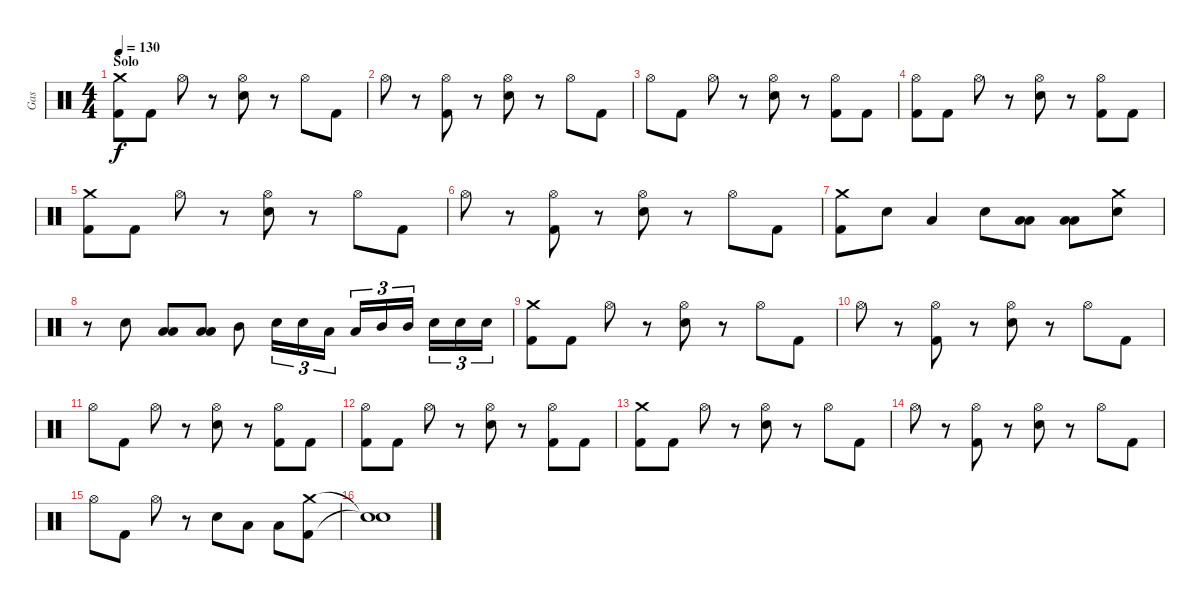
\track ("Gas" "Gas") {instrument percussion}
\staff {score}
\articulation defaults
\ts (4 4)
\section ("" "Solo")
\tempo 130
\clef neutral
\ks c
("Crash medium (hit)" "Kick (hit) 2").8{dy f} "Kick (hit) 2".8 "Hi-Hat (open)".8 r.8 ("Hi-Hat (open)" "Electric Snare (hit)").8 r.8 "Hi-Hat (open)".8 "Kick (hit) 2".8 |
"Hi-Hat (open)".8 r.8 ("Hi-Hat (open)" "Kick (hit) 2").8 r.8 ("Hi-Hat (open)" "Electric Snare (hit)").8 r.8 "Hi-Hat (open)".8 "Kick (hit) 2".8 |
"Hi-Hat (open)".8 "Kick (hit) 2".8 "Hi-Hat (open)".8 r.8 ("Hi-Hat (open)" "Electric Snare (hit)").8 r.8 ("Hi-Hat (open)" "Kick (hit) 2").8 "Kick (hit) 2".8 |
("Hi-Hat (open)" "Kick (hit) 2").8 "Kick (hit) 2".8 "Hi-Hat (open)".8 r.8 ("Hi-Hat (open)" "Electric Snare (hit)").8 r.8 ("Hi-Hat (open)" "Kick (hit) 2").8 "Kick (hit) 2".8 |
("Crash medium (hit)" "Kick (hit) 2").8 "Kick (hit) 2".8 "Hi-Hat (open)".8 r.8 ("Hi-Hat (open)" "Electric Snare (hit)").8 r.8 "Hi-Hat (open)".8 "Kick (hit) 2".8 |
"Hi-Hat (open)".8 r.8 ("Hi-Hat (open)" "Kick (hit) 2").8 r.8 ("Hi-Hat (open)" "Electric Snare (hit)").8 r.8 "Hi-Hat (open)".8 "Kick (hit) 2".8 |
("Crash medium (hit)" "Kick (hit) 2").8 "Electric Snare (hit)".8 "Low Tom (hit)".4 "Electric Snare (hit)".8 ("Low Tom (hit)" "Low Tom (hit)").8{bd 60} ("Low Tom (hit)" "Low Tom (hit)").8{bd 60} ("Electric Snare (hit)" "Crash medium (hit)").8{bd 60} |
r.8 "Electric Snare (hit)".8 ("Low Tom (hit)" "Low Tom (hit)").8{bd 60} ("Low Tom (hit)" "Low Tom (hit)").8{bd 60} "Mid Tom (hit)".8 "Electric Snare (hit)".16{tu (3 2)} "Electric Snare (hit)".16{tu (3 2)} "Low Tom (hit)".16{tu (3 2)} "Low Tom (hit)".16{tu (3 2)} "Mid Tom (hit)".16{tu (3 2)} "Mid Tom (hit)".16{tu (3 2) beam splitsecondary} "Electric Snare (hit)".16{tu (3 2)} "Electric Snare (hit)".16{tu (3 2)} "Electric Snare (hit)".16{tu (3 2)} |
("Crash medium (hit)" "Kick (hit) 2").8 "Kick (hit) 2".8 "Hi-Hat (open)".8 r.8 ("Hi-Hat (open)" "Electric Snare (hit)").8 r.8 "Hi-Hat (open)".8 "Kick (hit) 2".8 |
"Hi-Hat (open)".8 r.8 ("Hi-Hat (open)" "Kick (hit) 2").8 r.8 ("Hi-Hat (open)" "Electric Snare (hit)").8 r.8 "Hi-Hat (open)".8 "Kick (hit) 2".8 |
"Hi-Hat (open)".8 "Kick (hit) 2".8 "Hi-Hat (open)".8 r.8 ("Hi-Hat (open)" "Electric Snare (hit)").8 r.8 ("Hi-Hat (open)" "Kick (hit) 2").8 "Kick (hit) 2".8 |
("Hi-Hat (open)" "Kick (hit) 2").8 "Kick (hit) 2".8 "Hi-Hat (open)".8 r.8 ("Hi-Hat (open)" "Electric Snare (hit)").8 r.8 ("Hi-Hat (open)" "Kick (hit) 2").8 "Kick (hit) 2".8 |
("Crash medium (hit)" "Kick (hit) 2").8 "Kick (hit) 2".8 "Hi-Hat (open)".8 r.8 ("Hi-Hat (open)" "Electric Snare (hit)").8 r.8 "Hi-Hat (open)".8 "Kick (hit) 2".8 |
"Hi-Hat (open)".8 r.8 ("Hi-Hat (open)" "Kick (hit) 2").8 r.8 ("Hi-Hat (open)" "Electric Snare (hit)").8 r.8 "Hi-Hat (open)".8 "Kick (hit) 2".8 |
"Hi-Hat (open)".8 "Kick (hit) 2".8 "Hi-Hat (open)".8 r.8 "Electric Snare (hit)".8 "Low Tom (hit)".8 "Low Tom (hit)".8 ("Crash medium (hit)" "Kick (hit) 2").8 |
("Snare (hit)"{t} "Snare (hit)"{t}).1
